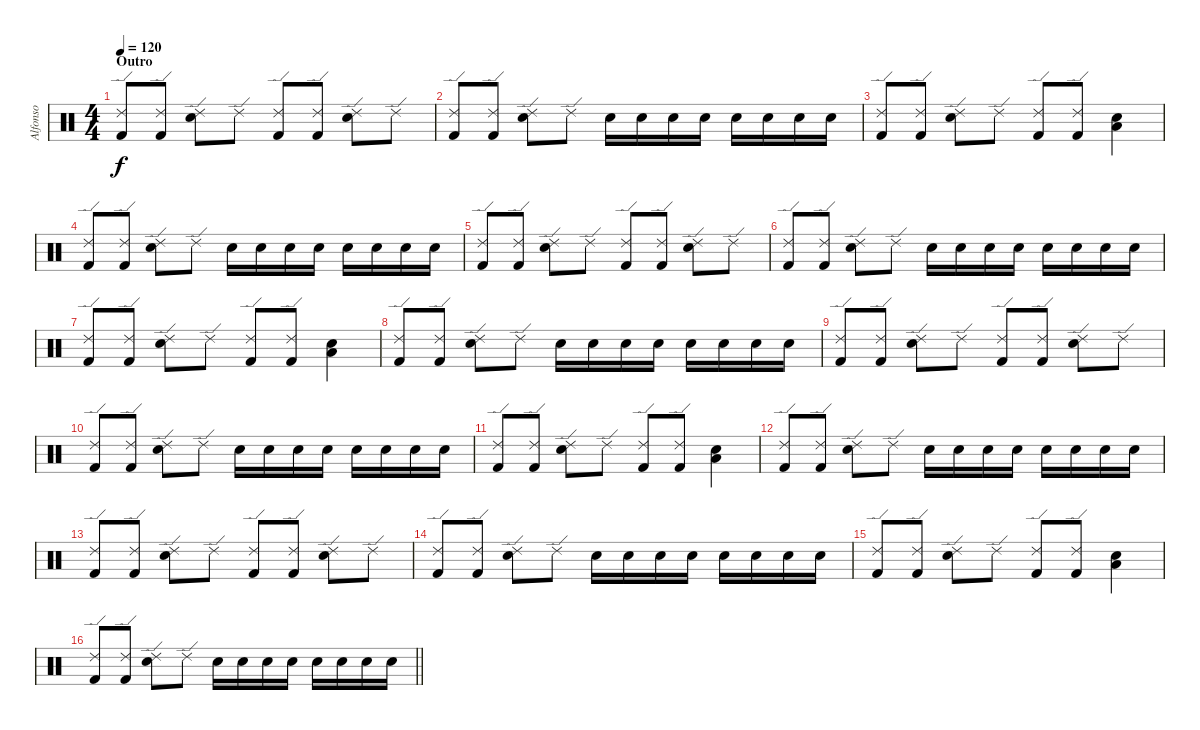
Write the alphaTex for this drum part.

\track ("Alfonso" "Alfonso") {instrument percussion}
\staff {score}
\articulation defaults
\ts (4 4)
\section ("" "Outro")
\tempo 120
\clef neutral
\ks c
("Ride (edge) 2" "Kick (hit) 2").8{dy f} ("Ride (edge) 2" "Kick (hit) 2").8 ("Ride (edge) 2" "Electric Snare (hit)").8 "Ride (edge) 2".8 ("Ride (edge) 2" "Kick (hit) 2").8 ("Ride (edge) 2" "Kick (hit) 2").8 ("Ride (edge) 2" "Electric Snare (hit)").8 "Ride (edge) 2".8 |
("Ride (edge) 2" "Kick (hit) 2").8 ("Ride (edge) 2" "Kick (hit) 2").8 ("Ride (edge) 2" "Electric Snare (hit)").8 "Ride (edge) 2".8 "Electric Snare (hit)".16 "Electric Snare (hit)".16 "Electric Snare (hit)".16 "Electric Snare (hit)".16 "Electric Snare (hit)".16 "Electric Snare (hit)".16 "Electric Snare (hit)".16 "Electric Snare (hit)".16 |
("Ride (edge) 2" "Kick (hit) 2").8 ("Ride (edge) 2" "Kick (hit) 2").8 ("Ride (edge) 2" "Electric Snare (hit)").8 "Ride (edge) 2".8 ("Ride (edge) 2" "Kick (hit) 2").8 ("Ride (edge) 2" "Kick (hit) 2").8 ("Low Floor Tom (hit)" "Electric Snare (hit)").4 |
("Ride (edge) 2" "Kick (hit) 2").8 ("Ride (edge) 2" "Kick (hit) 2").8 ("Ride (edge) 2" "Electric Snare (hit)").8 "Ride (edge) 2".8 "Electric Snare (hit)".16 "Electric Snare (hit)".16 "Electric Snare (hit)".16 "Electric Snare (hit)".16 "Electric Snare (hit)".16 "Electric Snare (hit)".16 "Electric Snare (hit)".16 "Electric Snare (hit)".16 |
("Ride (edge) 2" "Kick (hit) 2").8 ("Ride (edge) 2" "Kick (hit) 2").8 ("Ride (edge) 2" "Electric Snare (hit)").8 "Ride (edge) 2".8 ("Ride (edge) 2" "Kick (hit) 2").8 ("Ride (edge) 2" "Kick (hit) 2").8 ("Ride (edge) 2" "Electric Snare (hit)").8 "Ride (edge) 2".8 |
("Ride (edge) 2" "Kick (hit) 2").8 ("Ride (edge) 2" "Kick (hit) 2").8 ("Ride (edge) 2" "Electric Snare (hit)").8 "Ride (edge) 2".8 "Electric Snare (hit)".16 "Electric Snare (hit)".16 "Electric Snare (hit)".16 "Electric Snare (hit)".16 "Electric Snare (hit)".16 "Electric Snare (hit)".16 "Electric Snare (hit)".16 "Electric Snare (hit)".16 |
("Ride (edge) 2" "Kick (hit) 2").8 ("Ride (edge) 2" "Kick (hit) 2").8 ("Ride (edge) 2" "Electric Snare (hit)").8 "Ride (edge) 2".8 ("Ride (edge) 2" "Kick (hit) 2").8 ("Ride (edge) 2" "Kick (hit) 2").8 ("Low Floor Tom (hit)" "Electric Snare (hit)").4 |
("Ride (edge) 2" "Kick (hit) 2").8 ("Ride (edge) 2" "Kick (hit) 2").8 ("Ride (edge) 2" "Electric Snare (hit)").8 "Ride (edge) 2".8 "Electric Snare (hit)".16 "Electric Snare (hit)".16 "Electric Snare (hit)".16 "Electric Snare (hit)".16 "Electric Snare (hit)".16 "Electric Snare (hit)".16 "Electric Snare (hit)".16 "Electric Snare (hit)".16 |
("Ride (edge) 2" "Kick (hit) 2").8 ("Ride (edge) 2" "Kick (hit) 2").8 ("Ride (edge) 2" "Electric Snare (hit)").8 "Ride (edge) 2".8 ("Ride (edge) 2" "Kick (hit) 2").8 ("Ride (edge) 2" "Kick (hit) 2").8 ("Ride (edge) 2" "Electric Snare (hit)").8 "Ride (edge) 2".8 |
("Ride (edge) 2" "Kick (hit) 2").8 ("Ride (edge) 2" "Kick (hit) 2").8 ("Ride (edge) 2" "Electric Snare (hit)").8 "Ride (edge) 2".8 "Electric Snare (hit)".16 "Electric Snare (hit)".16 "Electric Snare (hit)".16 "Electric Snare (hit)".16 "Electric Snare (hit)".16 "Electric Snare (hit)".16 "Electric Snare (hit)".16 "Electric Snare (hit)".16 |
("Ride (edge) 2" "Kick (hit) 2").8 ("Ride (edge) 2" "Kick (hit) 2").8 ("Ride (edge) 2" "Electric Snare (hit)").8 "Ride (edge) 2".8 ("Ride (edge) 2" "Kick (hit) 2").8 ("Ride (edge) 2" "Kick (hit) 2").8 ("Low Floor Tom (hit)" "Electric Snare (hit)").4 |
("Ride (edge) 2" "Kick (hit) 2").8 ("Ride (edge) 2" "Kick (hit) 2").8 ("Ride (edge) 2" "Electric Snare (hit)").8 "Ride (edge) 2".8 "Electric Snare (hit)".16 "Electric Snare (hit)".16 "Electric Snare (hit)".16 "Electric Snare (hit)".16 "Electric Snare (hit)".16 "Electric Snare (hit)".16 "Electric Snare (hit)".16 "Electric Snare (hit)".16 |
("Ride (edge) 2" "Kick (hit) 2").8 ("Ride (edge) 2" "Kick (hit) 2").8 ("Ride (edge) 2" "Electric Snare (hit)").8 "Ride (edge) 2".8 ("Ride (edge) 2" "Kick (hit) 2").8 ("Ride (edge) 2" "Kick (hit) 2").8 ("Ride (edge) 2" "Electric Snare (hit)").8 "Ride (edge) 2".8 |
("Ride (edge) 2" "Kick (hit) 2").8 ("Ride (edge) 2" "Kick (hit) 2").8 ("Ride (edge) 2" "Electric Snare (hit)").8 "Ride (edge) 2".8 "Electric Snare (hit)".16 "Electric Snare (hit)".16 "Electric Snare (hit)".16 "Electric Snare (hit)".16 "Electric Snare (hit)".16 "Electric Snare (hit)".16 "Electric Snare (hit)".16 "Electric Snare (hit)".16 |
("Ride (edge) 2" "Kick (hit) 2").8 ("Ride (edge) 2" "Kick (hit) 2").8 ("Ride (edge) 2" "Electric Snare (hit)").8 "Ride (edge) 2".8 ("Ride (edge) 2" "Kick (hit) 2").8 ("Ride (edge) 2" "Kick (hit) 2").8 ("Low Floor Tom (hit)" "Electric Snare (hit)").4 |
\barLineRight lightlight
("Ride (edge) 2" "Kick (hit) 2").8 ("Ride (edge) 2" "Kick (hit) 2").8 ("Ride (edge) 2" "Electric Snare (hit)").8 "Ride (edge) 2".8 "Electric Snare (hit)".16 "Electric Snare (hit)".16 "Electric Snare (hit)".16 "Electric Snare (hit)".16 "Electric Snare (hit)".16 "Electric Snare (hit)".16 "Electric Snare (hit)".16 "Electric Snare (hit)".16
